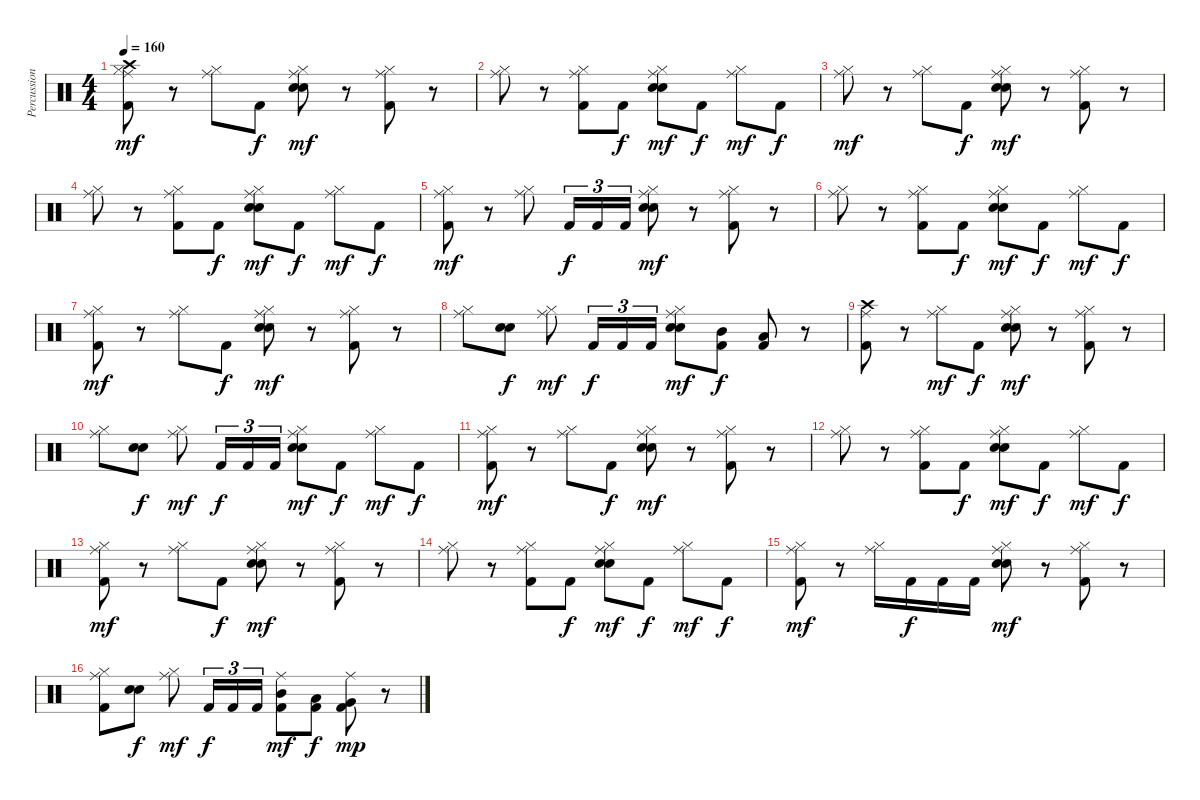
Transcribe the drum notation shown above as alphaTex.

\track ("Percussion" "Percussion") {instrument percussion}
\staff {score}
\articulation defaults
\ts (4 4)
\section ("" "")
\tempo 160
\clef neutral
\ks c
("Crash high (hit)" "Ride (middle)" "Hi-Hat (closed)" "Kick (hit) 2").8{dy mf} r.8 ("Ride (middle)" "Hi-Hat (closed)").8 "Kick (hit) 2".8{dy f} ("Ride (middle)" "Hi-Hat (closed)" "Snare (hit) 2" "Electric Snare (hit)").8{dy mf} r.8 ("Ride (middle)" "Hi-Hat (closed)" "Kick (hit) 2").8 r.8 |
("Ride (middle)" "Hi-Hat (closed)").8 r.8 ("Ride (middle)" "Hi-Hat (closed)" "Kick (hit) 2").8 "Kick (hit) 2".8{dy f} ("Ride (middle)" "Hi-Hat (closed)" "Snare (hit) 2" "Electric Snare (hit)").8{dy mf} "Kick (hit) 2".8{dy f} ("Ride (middle)" "Hi-Hat (closed)").8{dy mf} "Kick (hit) 2".8{dy f} |
("Ride (middle)" "Hi-Hat (closed)").8{dy mf} r.8 ("Ride (middle)" "Hi-Hat (closed)").8 "Kick (hit) 2".8{dy f} ("Ride (middle)" "Hi-Hat (closed)" "Snare (hit) 2" "Electric Snare (hit)").8{dy mf} r.8 ("Ride (middle)" "Hi-Hat (closed)" "Kick (hit) 2").8 r.8 |
("Ride (middle)" "Hi-Hat (closed)").8 r.8 ("Ride (middle)" "Hi-Hat (closed)" "Kick (hit) 2").8 "Kick (hit) 2".8{dy f} ("Ride (middle)" "Hi-Hat (closed)" "Snare (hit) 2" "Electric Snare (hit)").8{dy mf} "Kick (hit) 2".8{dy f} ("Ride (middle)" "Hi-Hat (closed)").8{dy mf} "Kick (hit) 2".8{dy f} |
("Ride (middle)" "Hi-Hat (closed)" "Kick (hit) 2").8{dy mf} r.8 ("Ride (middle)" "Hi-Hat (closed)").8 "Kick (hit) 2".16{tu (3 2) dy f} "Kick (hit) 2".16{tu (3 2)} "Kick (hit) 2".16{tu (3 2)} ("Ride (middle)" "Hi-Hat (closed)" "Snare (hit) 2" "Electric Snare (hit)").8{dy mf} r.8 ("Ride (middle)" "Hi-Hat (closed)" "Kick (hit) 2").8 r.8 |
("Ride (middle)" "Hi-Hat (closed)").8 r.8 ("Ride (middle)" "Hi-Hat (closed)" "Kick (hit) 2").8 "Kick (hit) 2".8{dy f} ("Ride (middle)" "Hi-Hat (closed)" "Snare (hit) 2" "Electric Snare (hit)").8{dy mf} "Kick (hit) 2".8{dy f} ("Ride (middle)" "Hi-Hat (closed)").8{dy mf} "Kick (hit) 2".8{dy f} |
("Ride (middle)" "Hi-Hat (closed)" "Kick (hit) 2").8{dy mf} r.8 ("Ride (middle)" "Hi-Hat (closed)").8 "Kick (hit) 2".8{dy f} ("Ride (middle)" "Hi-Hat (closed)" "Snare (hit) 2" "Electric Snare (hit)").8{dy mf} r.8 ("Ride (middle)" "Hi-Hat (closed)" "Kick (hit) 2").8 r.8 |
("Ride (middle)" "Hi-Hat (closed)").8 ("Snare (hit) 2" "Electric Snare (hit)").8{dy f} ("Ride (middle)" "Hi-Hat (closed)").8{dy mf} "Kick (hit) 2".16{tu (3 2) dy f} "Kick (hit) 2".16{tu (3 2)} "Kick (hit) 2".16{tu (3 2)} ("Ride (middle)" "Hi-Hat (closed)" "Snare (hit) 2" "Electric Snare (hit)").8{dy mf} ("Mid Tom (hit)" "Kick (hit) 2").8{dy f} ("Low Tom (hit)" "Kick (hit) 2").8 r.8 |
("Crash high (hit)" "Ride (middle)" "Kick (hit) 2").8 r.8 ("Ride (middle)" "Hi-Hat (closed)").8{dy mf} "Kick (hit) 2".8{dy f} ("Ride (middle)" "Hi-Hat (closed)" "Snare (hit) 2" "Electric Snare (hit)").8{dy mf} r.8 ("Ride (middle)" "Hi-Hat (closed)" "Kick (hit) 2").8 r.8 |
("Ride (middle)" "Hi-Hat (closed)").8 ("Snare (hit) 2" "Electric Snare (hit)").8{dy f} ("Ride (middle)" "Hi-Hat (closed)").8{dy mf} "Kick (hit) 2".16{tu (3 2) dy f} "Kick (hit) 2".16{tu (3 2)} "Kick (hit) 2".16{tu (3 2)} ("Ride (middle)" "Hi-Hat (closed)" "Snare (hit) 2" "Electric Snare (hit)").8{dy mf} "Kick (hit) 2".8{dy f} ("Ride (middle)" "Hi-Hat (closed)").8{dy mf} "Kick (hit) 2".8{dy f} |
("Ride (middle)" "Hi-Hat (closed)" "Kick (hit) 2").8{dy mf} r.8 ("Ride (middle)" "Hi-Hat (closed)").8 "Kick (hit) 2".8{dy f} ("Ride (middle)" "Hi-Hat (closed)" "Snare (hit) 2" "Electric Snare (hit)").8{dy mf} r.8 ("Ride (middle)" "Hi-Hat (closed)" "Kick (hit) 2").8 r.8 |
("Ride (middle)" "Hi-Hat (closed)").8 r.8 ("Ride (middle)" "Hi-Hat (closed)" "Kick (hit) 2").8 "Kick (hit) 2".8{dy f} ("Ride (middle)" "Hi-Hat (closed)" "Snare (hit) 2" "Electric Snare (hit)").8{dy mf} "Kick (hit) 2".8{dy f} ("Ride (middle)" "Hi-Hat (closed)").8{dy mf} "Kick (hit) 2".8{dy f} |
("Ride (middle)" "Hi-Hat (closed)" "Kick (hit) 2").8{dy mf} r.8 ("Ride (middle)" "Hi-Hat (closed)").8 "Kick (hit) 2".8{dy f} ("Ride (middle)" "Hi-Hat (closed)" "Snare (hit) 2" "Electric Snare (hit)").8{dy mf} r.8 ("Ride (middle)" "Hi-Hat (closed)" "Kick (hit) 2").8 r.8 |
("Ride (middle)" "Hi-Hat (closed)").8 r.8 ("Ride (middle)" "Hi-Hat (closed)" "Kick (hit) 2").8 "Kick (hit) 2".8{dy f} ("Ride (middle)" "Hi-Hat (closed)" "Snare (hit) 2" "Electric Snare (hit)").8{dy mf} "Kick (hit) 2".8{dy f} ("Ride (middle)" "Hi-Hat (closed)").8{dy mf} "Kick (hit) 2".8{dy f} |
("Ride (middle)" "Hi-Hat (closed)" "Kick (hit) 2").8{dy mf} r.8 ("Ride (middle)" "Hi-Hat (closed)").16 "Kick (hit) 2".16{dy f} "Kick (hit) 2".16 "Kick (hit) 2".16 ("Ride (middle)" "Hi-Hat (closed)" "Snare (hit) 2" "Electric Snare (hit)").8{dy mf} r.8 ("Ride (middle)" "Hi-Hat (closed)" "Kick (hit) 2").8 r.8 |
("Ride (middle)" "Hi-Hat (closed)" "Kick (hit) 2").8 ("Snare (hit) 2" "Electric Snare (hit)").8{dy f} ("Ride (middle)" "Hi-Hat (closed)").8{dy mf} "Kick (hit) 2".16{tu (3 2) dy f} "Kick (hit) 2".16{tu (3 2)} "Kick (hit) 2".16{tu (3 2)} ("Ride (middle)" "Mid Tom (hit)" "Kick (hit) 2").8{dy mf} ("Low Tom (hit)" "Kick (hit) 2").8{dy f} ("Ride (middle)" "Very Low Tom (hit)" "Kick (hit) 2").8{dy mp} r.8
